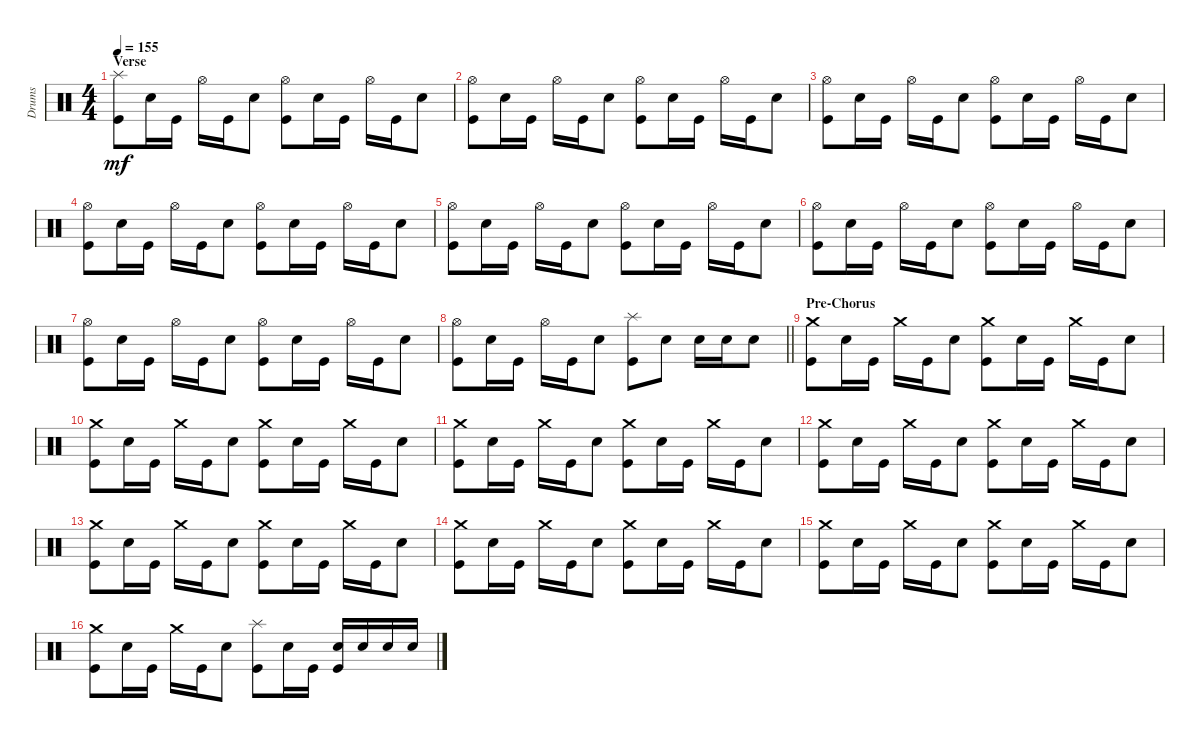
\track ("Drums" "Drums") {instrument percussion}
\staff {score}
\articulation defaults
\ts (4 4)
\section ("" "Verse")
\tempo 155
\clef neutral
\ks c
("Kick (hit)" "Splash (hit)").8{dy mf} "Snare (hit) 2".16 "Kick (hit)".16 "Hi-Hat (open)".16 "Kick (hit)".16 "Snare (hit) 2".8 ("Kick (hit)" "Hi-Hat (open)").8 "Snare (hit) 2".16 "Kick (hit)".16 "Hi-Hat (open)".16 "Kick (hit)".16 "Snare (hit) 2".8 |
("Kick (hit)" "Hi-Hat (open)").8 "Snare (hit) 2".16 "Kick (hit)".16 "Hi-Hat (open)".16 "Kick (hit)".16 "Snare (hit) 2".8 ("Kick (hit)" "Hi-Hat (open)").8 "Snare (hit) 2".16 "Kick (hit)".16 "Hi-Hat (open)".16 "Kick (hit)".16 "Snare (hit) 2".8 |
("Kick (hit)" "Hi-Hat (open)").8 "Snare (hit) 2".16 "Kick (hit)".16 "Hi-Hat (open)".16 "Kick (hit)".16 "Snare (hit) 2".8 ("Kick (hit)" "Hi-Hat (open)").8 "Snare (hit) 2".16 "Kick (hit)".16 "Hi-Hat (open)".16 "Kick (hit)".16 "Snare (hit) 2".8 |
("Kick (hit)" "Hi-Hat (open)").8 "Snare (hit) 2".16 "Kick (hit)".16 "Hi-Hat (open)".16 "Kick (hit)".16 "Snare (hit) 2".8 ("Kick (hit)" "Hi-Hat (open)").8 "Snare (hit) 2".16 "Kick (hit)".16 "Hi-Hat (open)".16 "Kick (hit)".16 "Snare (hit) 2".8 |
("Kick (hit)" "Hi-Hat (open)").8 "Snare (hit) 2".16 "Kick (hit)".16 "Hi-Hat (open)".16 "Kick (hit)".16 "Snare (hit) 2".8 ("Kick (hit)" "Hi-Hat (open)").8 "Snare (hit) 2".16 "Kick (hit)".16 "Hi-Hat (open)".16 "Kick (hit)".16 "Snare (hit) 2".8 |
("Kick (hit)" "Hi-Hat (open)").8 "Snare (hit) 2".16 "Kick (hit)".16 "Hi-Hat (open)".16 "Kick (hit)".16 "Snare (hit) 2".8 ("Kick (hit)" "Hi-Hat (open)").8 "Snare (hit) 2".16 "Kick (hit)".16 "Hi-Hat (open)".16 "Kick (hit)".16 "Snare (hit) 2".8 |
("Kick (hit)" "Hi-Hat (open)").8 "Snare (hit) 2".16 "Kick (hit)".16 "Hi-Hat (open)".16 "Kick (hit)".16 "Snare (hit) 2".8 ("Kick (hit)" "Hi-Hat (open)").8 "Snare (hit) 2".16 "Kick (hit)".16 "Hi-Hat (open)".16 "Kick (hit)".16 "Snare (hit) 2".8 |
\barLineRight lightlight
("Kick (hit)" "Hi-Hat (open)").8 "Snare (hit) 2".16 "Kick (hit)".16 "Hi-Hat (open)".16 "Kick (hit)".16 "Snare (hit) 2".8 ("Kick (hit)" "Splash (hit)").8 "Snare (hit) 2".8 "Snare (hit) 2".16 "Snare (hit) 2".16 "Snare (hit) 2".8 |
\section ("" "Pre-Chorus")
("Kick (hit)" "Crash medium (hit)").8 "Snare (hit) 2".16 "Kick (hit)".16 "Crash medium (hit)".16 "Kick (hit)".16 "Snare (hit) 2".8 ("Kick (hit)" "Crash medium (hit)").8 "Snare (hit) 2".16 "Kick (hit)".16 "Crash medium (hit)".16 "Kick (hit)".16 "Snare (hit) 2".8 |
("Kick (hit)" "Crash medium (hit)").8 "Snare (hit) 2".16 "Kick (hit)".16 "Crash medium (hit)".16 "Kick (hit)".16 "Snare (hit) 2".8 ("Kick (hit)" "Crash medium (hit)").8 "Snare (hit) 2".16 "Kick (hit)".16 "Crash medium (hit)".16 "Kick (hit)".16 "Snare (hit) 2".8 |
("Kick (hit)" "Crash medium (hit)").8 "Snare (hit) 2".16 "Kick (hit)".16 "Crash medium (hit)".16 "Kick (hit)".16 "Snare (hit) 2".8 ("Kick (hit)" "Crash medium (hit)").8 "Snare (hit) 2".16 "Kick (hit)".16 "Crash medium (hit)".16 "Kick (hit)".16 "Snare (hit) 2".8 |
("Kick (hit)" "Crash medium (hit)").8 "Snare (hit) 2".16 "Kick (hit)".16 "Crash medium (hit)".16 "Kick (hit)".16 "Snare (hit) 2".8 ("Kick (hit)" "Crash medium (hit)").8 "Snare (hit) 2".16 "Kick (hit)".16 "Crash medium (hit)".16 "Kick (hit)".16 "Snare (hit) 2".8 |
("Kick (hit)" "Crash medium (hit)").8 "Snare (hit) 2".16 "Kick (hit)".16 "Crash medium (hit)".16 "Kick (hit)".16 "Snare (hit) 2".8 ("Kick (hit)" "Crash medium (hit)").8 "Snare (hit) 2".16 "Kick (hit)".16 "Crash medium (hit)".16 "Kick (hit)".16 "Snare (hit) 2".8 |
("Kick (hit)" "Crash medium (hit)").8 "Snare (hit) 2".16 "Kick (hit)".16 "Crash medium (hit)".16 "Kick (hit)".16 "Snare (hit) 2".8 ("Kick (hit)" "Crash medium (hit)").8 "Snare (hit) 2".16 "Kick (hit)".16 "Crash medium (hit)".16 "Kick (hit)".16 "Snare (hit) 2".8 |
("Kick (hit)" "Crash medium (hit)").8 "Snare (hit) 2".16 "Kick (hit)".16 "Crash medium (hit)".16 "Kick (hit)".16 "Snare (hit) 2".8 ("Kick (hit)" "Crash medium (hit)").8 "Snare (hit) 2".16 "Kick (hit)".16 "Crash medium (hit)".16 "Kick (hit)".16 "Snare (hit) 2".8 |
("Kick (hit)" "Crash medium (hit)").8 "Snare (hit) 2".16 "Kick (hit)".16 "Crash medium (hit)".16 "Kick (hit)".16 "Snare (hit) 2".8 ("Kick (hit)" "Splash (hit)").8 "Snare (hit) 2".16 "Kick (hit)".16 ("Kick (hit)" "Snare (hit) 2").16 "Snare (hit) 2".16 "Snare (hit) 2".16 "Snare (hit) 2".16
